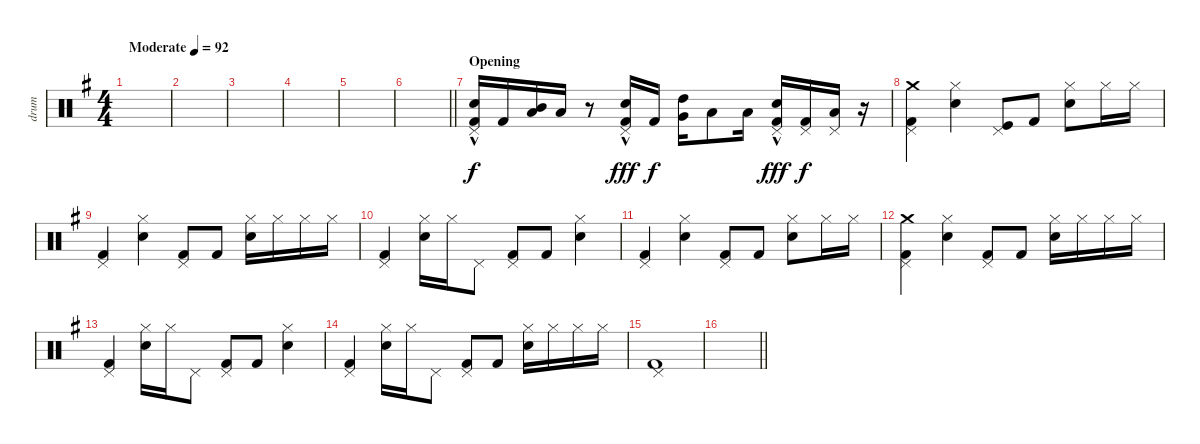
\track ("drum" "drum") {instrument percussion}
\staff {score}
\articulation defaults
\ts (4 4)
\tempo (92 "Moderate")
\clef neutral
\ks g
|
|
|
|
|
\barLineRight lightlight
|
\section ("" "Opening")
("Snare (hit) 2"{hac} "Kick (hit) 2" "Pedal Hi-Hat (hit)").16 "Kick (hit) 2".16{dy f} ("Mid Tom (hit)" "Low Floor Tom (hit)").16 "Low Tom (hit)".16 r.8 ("Snare (hit) 2"{hac} "Kick (hit) 2" "Pedal Hi-Hat (hit)").16{dy fff} "Kick (hit) 2".16{dy f} ("High Tom (hit)" "Very Low Tom (hit)").16 "Low Tom (hit)".8 "Low Tom (hit)".16 ("Snare (hit) 2"{hac} "Kick (hit) 2"{hac} "Pedal Hi-Hat (hit)"{hac}).16{dy fff} ("Kick (hit) 2" "Pedal Hi-Hat (hit)").16{dy f} ("Low Tom (hit)" "Pedal Hi-Hat (hit)").16 r.16 |
("Kick (hit) 2" "Pedal Hi-Hat (hit)" "Crash medium (hit)").4 ("Snare (hit) 2" "Hi-Hat (closed)").4 ("Kick (hit)" "Pedal Hi-Hat (hit)").8 "Kick (hit) 2".8 ("Snare (hit) 2" "Hi-Hat (closed)").8 "Hi-Hat (closed)".16 "Hi-Hat (closed)".16 |
("Kick (hit) 2" "Pedal Hi-Hat (hit)").4 ("Snare (hit) 2" "Hi-Hat (closed)").4 ("Kick (hit) 2" "Pedal Hi-Hat (hit)").8 "Kick (hit) 2".8 ("Snare (hit) 2" "Hi-Hat (closed)").16 "Hi-Hat (closed)".16 "Hi-Hat (closed)".16 "Hi-Hat (closed)".16 |
("Kick (hit) 2" "Pedal Hi-Hat (hit)").4 ("Snare (hit) 2" "Hi-Hat (closed)").16 "Hi-Hat (closed)".16 "Pedal Hi-Hat (hit)".8 ("Kick (hit) 2" "Pedal Hi-Hat (hit)").8 "Kick (hit) 2".8 ("Snare (hit) 2" "Hi-Hat (closed)").4 |
("Kick (hit) 2" "Pedal Hi-Hat (hit)").4 ("Snare (hit) 2" "Hi-Hat (closed)").4 ("Kick (hit) 2" "Pedal Hi-Hat (hit)").8 "Kick (hit) 2".8 ("Snare (hit) 2" "Hi-Hat (closed)").8 "Hi-Hat (closed)".16 "Hi-Hat (closed)".16 |
("Kick (hit) 2" "Pedal Hi-Hat (hit)" "Crash medium (hit)").4 ("Snare (hit) 2" "Hi-Hat (closed)").4 ("Kick (hit) 2" "Pedal Hi-Hat (hit)").8 "Kick (hit) 2".8 ("Snare (hit) 2" "Hi-Hat (closed)").16 "Hi-Hat (closed)".16 "Hi-Hat (closed)".16 "Hi-Hat (closed)".16 |
("Kick (hit) 2" "Pedal Hi-Hat (hit)").4 ("Snare (hit) 2" "Hi-Hat (closed)").16 "Hi-Hat (closed)".16 "Pedal Hi-Hat (hit)".8 ("Kick (hit) 2" "Pedal Hi-Hat (hit)").8 "Kick (hit) 2".8 ("Snare (hit) 2" "Hi-Hat (closed)").4 |
("Kick (hit) 2" "Pedal Hi-Hat (hit)").4 ("Snare (hit) 2" "Hi-Hat (closed)").16 "Hi-Hat (closed)".16 "Pedal Hi-Hat (hit)".8 ("Kick (hit) 2" "Pedal Hi-Hat (hit)").8 "Kick (hit) 2".8 ("Snare (hit) 2" "Hi-Hat (closed)").16 "Hi-Hat (closed)".16 "Hi-Hat (closed)".16 "Hi-Hat (closed)".16 |
("Kick (hit) 2" "Pedal Hi-Hat (hit)").1 |
\barLineRight lightlight
